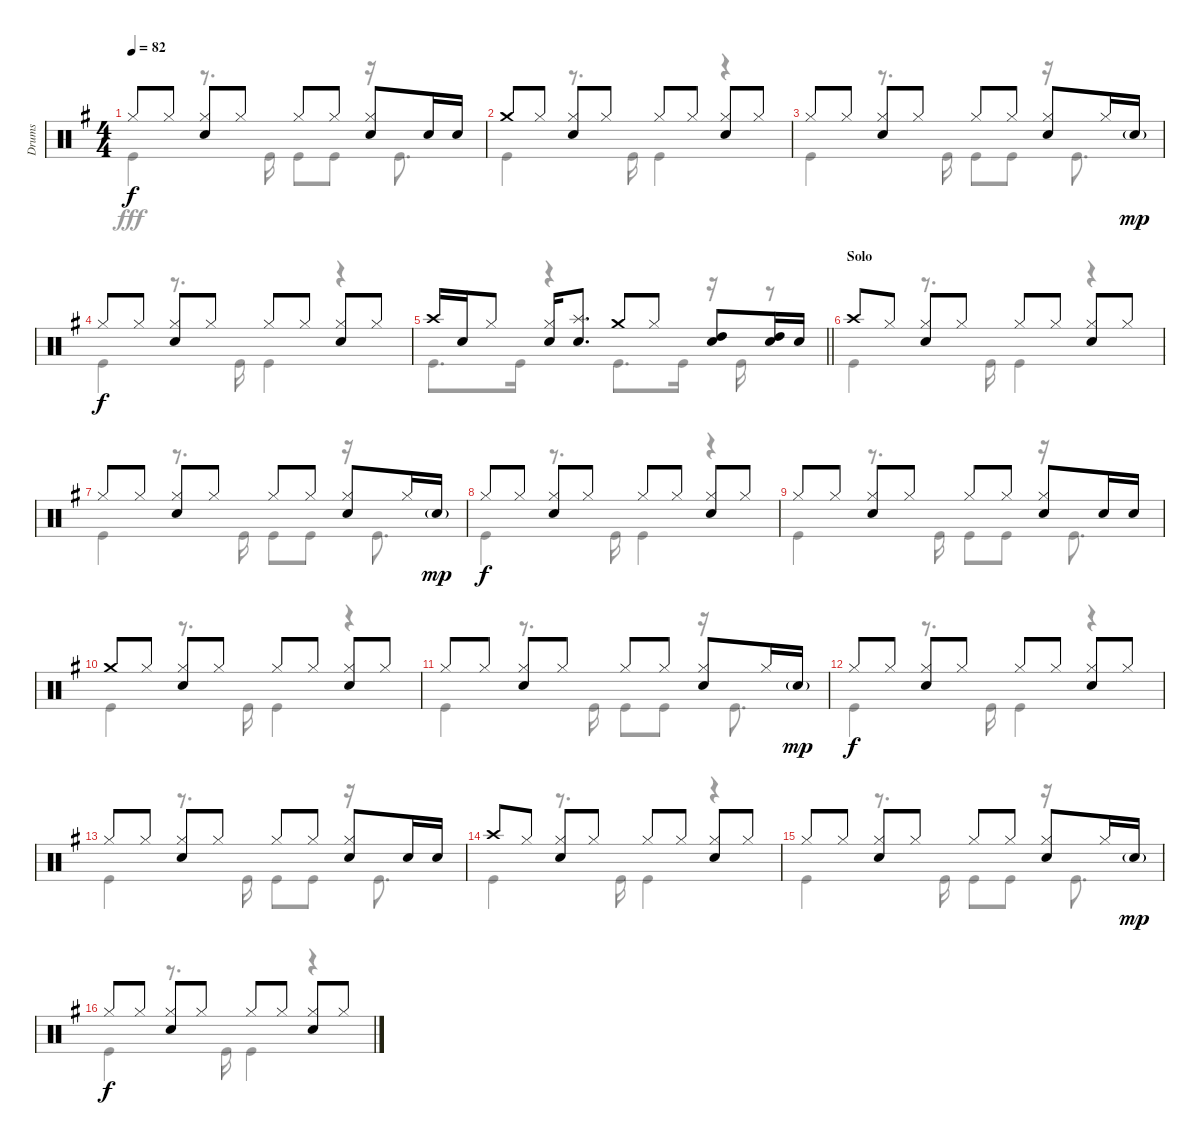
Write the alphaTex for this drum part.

\track ("Drums" "Drums") {instrument percussion}
\staff {score}
\articulation defaults
\voice
\ts (4 4)
\tempo 82
\clef neutral
\ks g "Hi-Hat (closed)".8{dy f} "Hi-Hat (closed)".8
("Hi-Hat (closed)" "Snare (hit) 2").8 "Hi-Hat (closed)".8 "Hi-Hat (closed)".8 "Hi-Hat (closed)".8 ("Hi-Hat (closed)" "Snare (hit) 2").8 "Snare (hit) 2".16 "Snare (hit) 2".16 |
"Crash medium (hit)".8 "Hi-Hat (closed)".8 ("Hi-Hat (closed)" "Snare (hit) 2").8 "Hi-Hat (closed)".8 "Hi-Hat (closed)".8 "Hi-Hat (closed)".8 ("Hi-Hat (closed)" "Snare (hit) 2").8 "Hi-Hat (closed)".8 |
"Hi-Hat (closed)".8 "Hi-Hat (closed)".8 ("Hi-Hat (closed)" "Snare (hit) 2").8 "Hi-Hat (closed)".8 "Hi-Hat (closed)".8 "Hi-Hat (closed)".8 ("Hi-Hat (closed)" "Snare (hit) 2").8 "Hi-Hat (closed)".16 "Snare (hit) 2"{g}.16{dy mp} |
"Hi-Hat (closed)".8{dy f} "Hi-Hat (closed)".8 ("Hi-Hat (closed)" "Snare (hit) 2").8 "Hi-Hat (closed)".8 "Hi-Hat (closed)".8 "Hi-Hat (closed)".8 ("Hi-Hat (closed)" "Snare (hit) 2").8 "Hi-Hat (closed)".8 |
\barLineRight lightlight "Crash high (hit)".16 "Snare (hit) 2".16 "Hi-Hat (closed)".8
("Hi-Hat (closed)" "Snare (hit) 2").16 ("Splash (hit)" "Snare (hit) 2").8{d} "Crash medium (hit)".8 "Hi-Hat (closed)".8 ("High Tom (hit)" "Snare (hit) 2").8 ("High Tom (hit)" "Snare (hit) 2").16 "Snare (hit) 2".16 |
\section ("" "Solo")
"Crash high (hit)".8 "Hi-Hat (closed)".8 ("Hi-Hat (closed)" "Snare (hit) 2").8 "Hi-Hat (closed)".8 "Hi-Hat (closed)".8 "Hi-Hat (closed)".8 ("Hi-Hat (closed)" "Snare (hit) 2").8 "Hi-Hat (closed)".8 |
"Hi-Hat (closed)".8 "Hi-Hat (closed)".8 ("Hi-Hat (closed)" "Snare (hit) 2").8 "Hi-Hat (closed)".8 "Hi-Hat (closed)".8 "Hi-Hat (closed)".8 ("Hi-Hat (closed)" "Snare (hit) 2").8 "Hi-Hat (closed)".16 "Snare (hit) 2"{g}.16{dy mp} |
"Hi-Hat (closed)".8{dy f} "Hi-Hat (closed)".8 ("Hi-Hat (closed)" "Snare (hit) 2").8 "Hi-Hat (closed)".8 "Hi-Hat (closed)".8 "Hi-Hat (closed)".8 ("Hi-Hat (closed)" "Snare (hit) 2").8 "Hi-Hat (closed)".8 |
"Hi-Hat (closed)".8 "Hi-Hat (closed)".8 ("Hi-Hat (closed)" "Snare (hit) 2").8 "Hi-Hat (closed)".8 "Hi-Hat (closed)".8 "Hi-Hat (closed)".8 ("Hi-Hat (closed)" "Snare (hit) 2").8 "Snare (hit) 2".16 "Snare (hit) 2".16 |
"Crash medium (hit)".8 "Hi-Hat (closed)".8 ("Hi-Hat (closed)" "Snare (hit) 2").8 "Hi-Hat (closed)".8 "Hi-Hat (closed)".8 "Hi-Hat (closed)".8 ("Hi-Hat (closed)" "Snare (hit) 2").8 "Hi-Hat (closed)".8 |
"Hi-Hat (closed)".8 "Hi-Hat (closed)".8 ("Hi-Hat (closed)" "Snare (hit) 2").8 "Hi-Hat (closed)".8 "Hi-Hat (closed)".8 "Hi-Hat (closed)".8 ("Hi-Hat (closed)" "Snare (hit) 2").8 "Hi-Hat (closed)".16 "Snare (hit) 2"{g}.16{dy mp} |
"Hi-Hat (closed)".8{dy f} "Hi-Hat (closed)".8 ("Hi-Hat (closed)" "Snare (hit) 2").8 "Hi-Hat (closed)".8 "Hi-Hat (closed)".8 "Hi-Hat (closed)".8 ("Hi-Hat (closed)" "Snare (hit) 2").8 "Hi-Hat (closed)".8 |
"Hi-Hat (closed)".8 "Hi-Hat (closed)".8 ("Hi-Hat (closed)" "Snare (hit) 2").8 "Hi-Hat (closed)".8 "Hi-Hat (closed)".8 "Hi-Hat (closed)".8 ("Hi-Hat (closed)" "Snare (hit) 2").8 "Snare (hit) 2".16 "Snare (hit) 2".16 |
"Crash high (hit)".8 "Hi-Hat (closed)".8 ("Hi-Hat (closed)" "Snare (hit) 2").8 "Hi-Hat (closed)".8 "Hi-Hat (closed)".8 "Hi-Hat (closed)".8 ("Hi-Hat (closed)" "Snare (hit) 2").8 "Hi-Hat (closed)".8 |
"Hi-Hat (closed)".8 "Hi-Hat (closed)".8 ("Hi-Hat (closed)" "Snare (hit) 2").8 "Hi-Hat (closed)".8 "Hi-Hat (closed)".8 "Hi-Hat (closed)".8 ("Hi-Hat (closed)" "Snare (hit) 2").8 "Hi-Hat (closed)".16 "Snare (hit) 2"{g}.16{dy mp} |
"Hi-Hat (closed)".8{dy f} "Hi-Hat (closed)".8 ("Hi-Hat (closed)" "Snare (hit) 2").8 "Hi-Hat (closed)".8 "Hi-Hat (closed)".8 "Hi-Hat (closed)".8 ("Hi-Hat (closed)" "Snare (hit) 2").8 "Hi-Hat (closed)".8
\voice
\clef neutral
\ottava regular
\simile none
\ks g "Kick (hit)".4{dy fff}
r.8{d} "Kick (hit)".16 "Kick (hit)".8 "Kick (hit)".8 r.16 "Kick (hit)".8{d} |
"Kick (hit)".4 r.8{d} "Kick (hit)".16 "Kick (hit)".4 r.4 |
"Kick (hit)".4 r.8{d} "Kick (hit)".16 "Kick (hit)".8 "Kick (hit)".8 r.16 "Kick (hit)".8{d} |
"Kick (hit)".4 r.8{d} "Kick (hit)".16 "Kick (hit)".4 r.4 |
\barLineRight lightlight "Kick (hit)".8{d} "Kick (hit)".16
r.4 "Kick (hit)".8{d} "Kick (hit)".16 r.16 "Kick (hit)".16 r.8 |
"Kick (hit)".4 r.8{d} "Kick (hit)".16 "Kick (hit)".4 r.4 |
"Kick (hit)".4 r.8{d} "Kick (hit)".16 "Kick (hit)".8 "Kick (hit)".8 r.16 "Kick (hit)".8{d} |
"Kick (hit)".4 r.8{d} "Kick (hit)".16 "Kick (hit)".4 r.4 |
"Kick (hit)".4 r.8{d} "Kick (hit)".16 "Kick (hit)".8 "Kick (hit)".8 r.16 "Kick (hit)".8{d} |
"Kick (hit)".4 r.8{d} "Kick (hit)".16 "Kick (hit)".4 r.4 |
"Kick (hit)".4 r.8{d} "Kick (hit)".16 "Kick (hit)".8 "Kick (hit)".8 r.16 "Kick (hit)".8{d} |
"Kick (hit)".4 r.8{d} "Kick (hit)".16 "Kick (hit)".4 r.4 |
"Kick (hit)".4 r.8{d} "Kick (hit)".16 "Kick (hit)".8 "Kick (hit)".8 r.16 "Kick (hit)".8{d} |
"Kick (hit)".4 r.8{d} "Kick (hit)".16 "Kick (hit)".4 r.4 |
"Kick (hit)".4 r.8{d} "Kick (hit)".16 "Kick (hit)".8 "Kick (hit)".8 r.16 "Kick (hit)".8{d} |
"Kick (hit)".4 r.8{d} "Kick (hit)".16 "Kick (hit)".4 r.4
